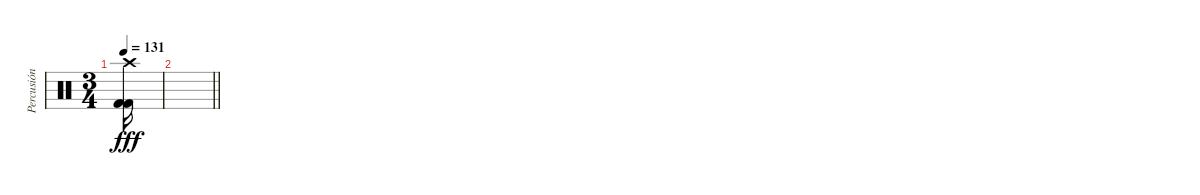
\track ("Percusión" "Percusión") {instrument percussion}
\staff {score}
\articulation defaults
\ts (3 4)
\tempo 131
\clef neutral
\ks c
("Crash high (hit)" "Kick (hit) 2" "Kick (hit) 2").16{dy fff} |
\barLineRight lightlight
